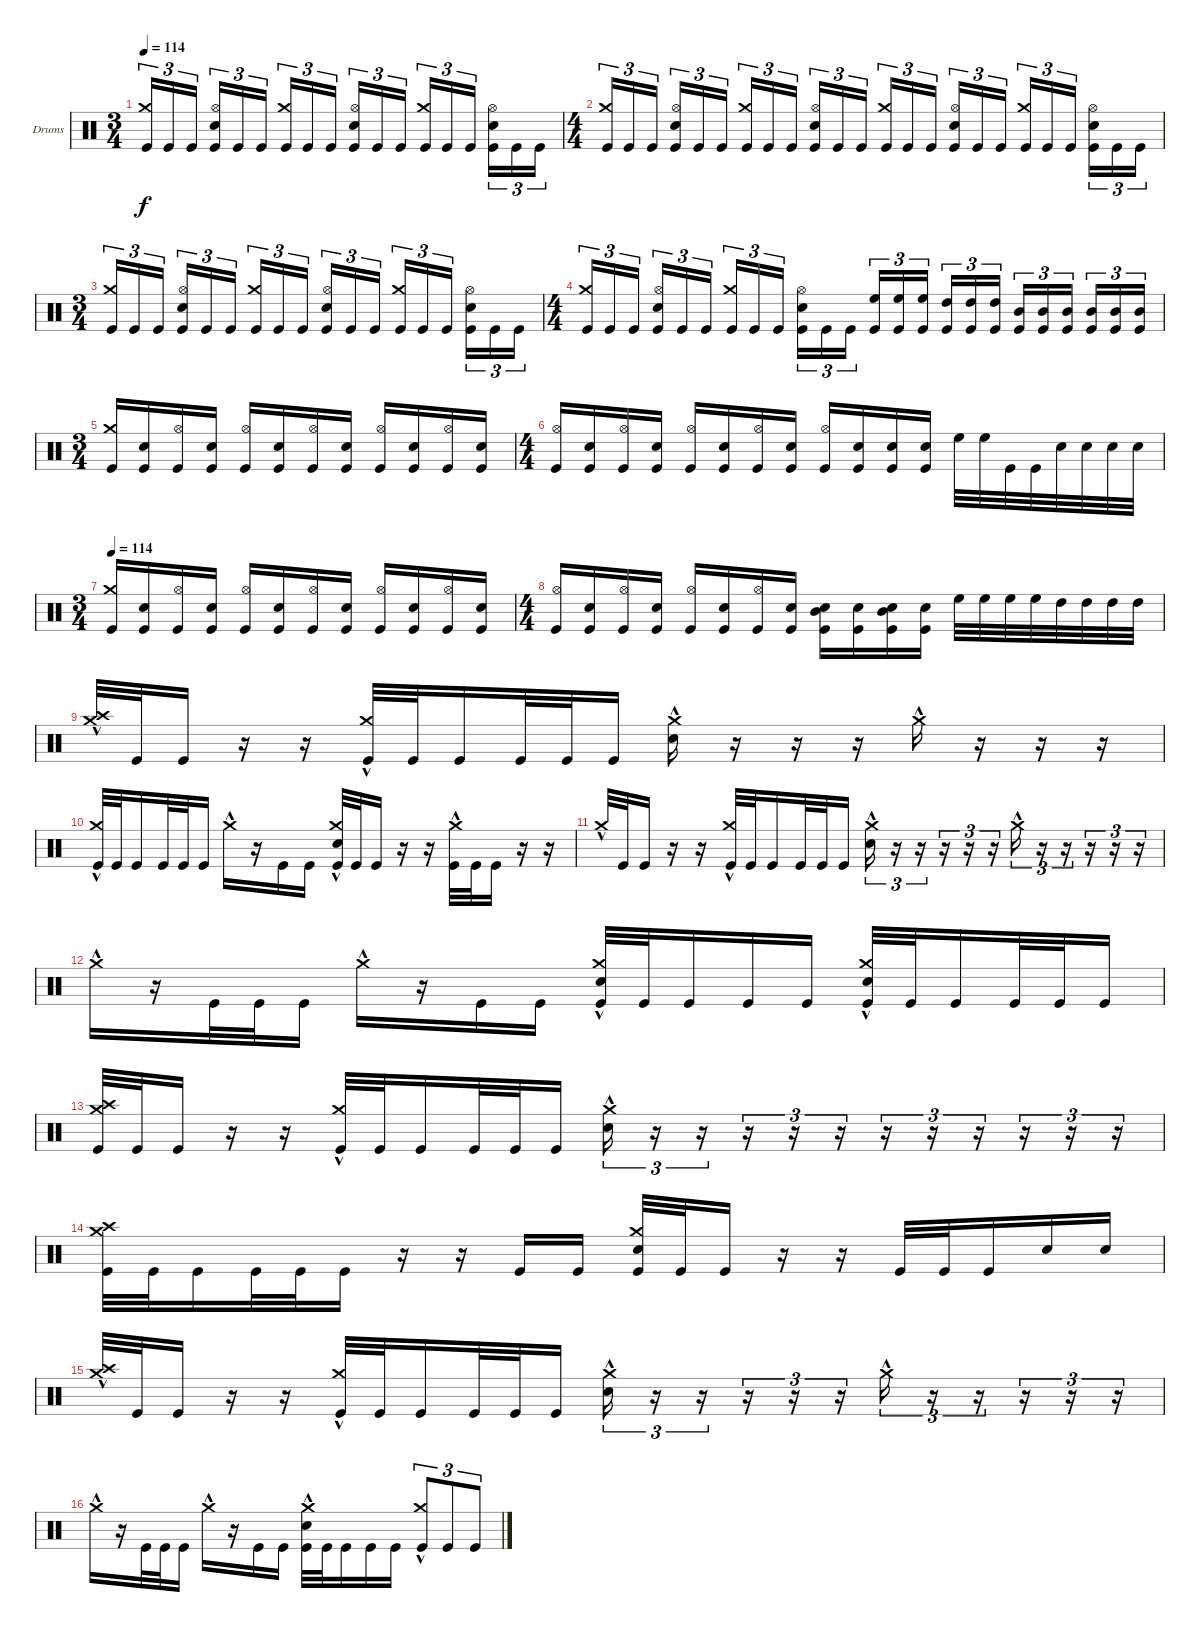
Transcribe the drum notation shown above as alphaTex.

\defaultSystemsLayout 4
\bracketExtendMode groupsimilarinstruments
\firstSystemTrackNameOrientation horizontal
\otherSystemsTrackNameOrientation horizontal
\track ("Drumkit" "Drums") {instrument percussion}
\staff {score}
\articulation defaults
\ts (3 4)
\tempo 114
\clef neutral
\ks c
("Kick (hit)" "Crash medium (hit)").16{tu (3 2) dy f beam invert} "Kick (hit)".16{tu (3 2)} "Kick (hit)".16{tu (3 2)} ("Kick (hit)" "Snare (hit) 2" "Hi-Hat (open)").16{tu (3 2)} "Kick (hit)".16{tu (3 2)} "Kick (hit)".16{tu (3 2)} ("Kick (hit)" "Crash medium (hit)").16{tu (3 2) beam invert} "Kick (hit)".16{tu (3 2)} "Kick (hit)".16{tu (3 2)} ("Kick (hit)" "Snare (hit) 2" "Hi-Hat (open)").16{tu (3 2)} "Kick (hit)".16{tu (3 2)} "Kick (hit)".16{tu (3 2)} ("Kick (hit)" "Crash medium (hit)").16{tu (3 2) beam invert} "Kick (hit)".16{tu (3 2)} "Kick (hit)".16{tu (3 2)} ("Kick (hit)" "Snare (hit) 2" "Hi-Hat (open)").16{tu (3 2)} "Kick (hit)".16{tu (3 2)} "Kick (hit)".16{tu (3 2)} |
\ts (4 4)
("Kick (hit)" "Crash medium (hit)").16{tu (3 2) beam invert} "Kick (hit)".16{tu (3 2)} "Kick (hit)".16{tu (3 2)} ("Kick (hit)" "Snare (hit) 2" "Hi-Hat (open)").16{tu (3 2)} "Kick (hit)".16{tu (3 2)} "Kick (hit)".16{tu (3 2)} ("Kick (hit)" "Crash medium (hit)").16{tu (3 2) beam invert} "Kick (hit)".16{tu (3 2)} "Kick (hit)".16{tu (3 2)} ("Kick (hit)" "Snare (hit) 2" "Hi-Hat (open)").16{tu (3 2)} "Kick (hit)".16{tu (3 2)} "Kick (hit)".16{tu (3 2)} ("Kick (hit)" "Crash medium (hit)").16{tu (3 2) beam invert} "Kick (hit)".16{tu (3 2)} "Kick (hit)".16{tu (3 2)} ("Kick (hit)" "Snare (hit) 2" "Hi-Hat (open)").16{tu (3 2)} "Kick (hit)".16{tu (3 2)} "Kick (hit)".16{tu (3 2)} ("Kick (hit)" "Crash medium (hit)").16{tu (3 2) beam invert} "Kick (hit)".16{tu (3 2)} "Kick (hit)".16{tu (3 2)} ("Kick (hit)" "Snare (hit) 2" "Hi-Hat (open)").16{tu (3 2)} "Kick (hit)".16{tu (3 2)} "Kick (hit)".16{tu (3 2)} |
\ts (3 4)
("Kick (hit)" "Crash medium (hit)").16{tu (3 2) beam invert} "Kick (hit)".16{tu (3 2)} "Kick (hit)".16{tu (3 2)} ("Kick (hit)" "Snare (hit) 2" "Hi-Hat (open)").16{tu (3 2)} "Kick (hit)".16{tu (3 2)} "Kick (hit)".16{tu (3 2)} ("Kick (hit)" "Crash medium (hit)").16{tu (3 2) beam invert} "Kick (hit)".16{tu (3 2)} "Kick (hit)".16{tu (3 2)} ("Kick (hit)" "Snare (hit) 2" "Hi-Hat (open)").16{tu (3 2)} "Kick (hit)".16{tu (3 2)} "Kick (hit)".16{tu (3 2)} ("Kick (hit)" "Crash medium (hit)").16{tu (3 2) beam invert} "Kick (hit)".16{tu (3 2)} "Kick (hit)".16{tu (3 2)} ("Kick (hit)" "Snare (hit) 2" "Hi-Hat (open)").16{tu (3 2)} "Kick (hit)".16{tu (3 2)} "Kick (hit)".16{tu (3 2)} |
\ts (4 4)
("Kick (hit)" "Crash medium (hit)").16{tu (3 2) beam invert} "Kick (hit)".16{tu (3 2)} "Kick (hit)".16{tu (3 2)} ("Kick (hit)" "Snare (hit) 2" "Hi-Hat (open)").16{tu (3 2)} "Kick (hit)".16{tu (3 2)} "Kick (hit)".16{tu (3 2)} ("Kick (hit)" "Crash medium (hit)").16{tu (3 2) beam invert} "Kick (hit)".16{tu (3 2)} "Kick (hit)".16{tu (3 2)} ("Kick (hit)" "Snare (hit) 2" "Hi-Hat (open)").16{tu (3 2)} "Kick (hit)".16{tu (3 2)} "Kick (hit)".16{tu (3 2)} ("Kick (hit)" "High Floor Tom (hit)").16{tu (3 2)} ("Kick (hit)" "High Floor Tom (hit)").16{tu (3 2)} ("Kick (hit)" "High Floor Tom (hit)").16{tu (3 2)} ("Kick (hit)" "High Tom (hit)").16{tu (3 2)} ("Kick (hit)" "High Tom (hit)").16{tu (3 2)} ("Kick (hit)" "High Tom (hit)").16{tu (3 2)} ("Kick (hit)" "Mid Tom (hit)").16{tu (3 2)} ("Kick (hit)" "Mid Tom (hit)").16{tu (3 2)} ("Kick (hit)" "Mid Tom (hit)").16{tu (3 2)} ("Kick (hit)" "Mid Tom (hit)").16{tu (3 2)} ("Kick (hit)" "Mid Tom (hit)").16{tu (3 2)} ("Kick (hit)" "Mid Tom (hit)").16{tu (3 2)} |
\ts (3 4)
("Kick (hit)" "Crash medium (hit)").16{beam invert} ("Snare (hit) 2" "Kick (hit)").16 ("Kick (hit)" "Hi-Hat (open)").16 ("Kick (hit)" "Snare (hit) 2").16 ("Hi-Hat (open)" "Kick (hit)").16{beam invert} ("Kick (hit)" "Snare (hit) 2").16 ("Kick (hit)" "Hi-Hat (open)").16 ("Kick (hit)" "Snare (hit) 2").16 ("Hi-Hat (open)" "Kick (hit)").16{beam invert} ("Kick (hit)" "Snare (hit) 2").16 ("Kick (hit)" "Hi-Hat (open)").16 ("Kick (hit)" "Snare (hit) 2").16 |
\ts (4 4)
("Hi-Hat (open)" "Kick (hit)").16{beam invert} ("Kick (hit)" "Snare (hit) 2").16 ("Kick (hit)" "Hi-Hat (open)").16 ("Kick (hit)" "Snare (hit) 2").16 ("Hi-Hat (open)" "Kick (hit)").16{beam invert} ("Kick (hit)" "Snare (hit) 2").16 ("Kick (hit)" "Hi-Hat (open)").16 ("Kick (hit)" "Snare (hit) 2").16 ("Kick (hit)" "Hi-Hat (open)").16{beam invert} ("Kick (hit)" "Snare (hit) 2").16 ("Kick (hit)" "Snare (hit) 2").16 ("Kick (hit)" "Snare (hit) 2").16 "High Floor Tom (hit)".32{beam invert} "High Floor Tom (hit)".32 "Kick (hit)".32 "Kick (hit)".32 "Snare (hit) 2".32 "Snare (hit) 2".32 "Snare (hit) 2".32 "Snare (hit) 2".32 |
\ts (3 4)
\tempo (114 0.00625)
("Kick (hit)" "Crash medium (hit)").16{beam invert} ("Snare (hit) 2" "Kick (hit)").16 ("Kick (hit)" "Hi-Hat (open)").16 ("Kick (hit)" "Snare (hit) 2").16 ("Hi-Hat (open)" "Kick (hit)").16{beam invert} ("Kick (hit)" "Snare (hit) 2").16 ("Kick (hit)" "Hi-Hat (open)").16 ("Kick (hit)" "Snare (hit) 2").16 ("Hi-Hat (open)" "Kick (hit)").16{beam invert} ("Kick (hit)" "Snare (hit) 2").16 ("Kick (hit)" "Hi-Hat (open)").16 ("Kick (hit)" "Snare (hit) 2").16 |
\ts (4 4)
("Kick (hit)" "Hi-Hat (open)").16{beam invert} ("Kick (hit)" "Snare (hit) 2").16 ("Kick (hit)" "Hi-Hat (open)").16 ("Kick (hit)" "Snare (hit) 2").16 ("Hi-Hat (open)" "Kick (hit)").16{beam invert} ("Kick (hit)" "Snare (hit) 2").16 ("Kick (hit)" "Hi-Hat (open)").16 ("Kick (hit)" "Snare (hit) 2").16 ("Snare (hit) 2" "Mid Tom (hit)" "Kick (hit)").16{beam invert} ("Snare (hit) 2" "Kick (hit)").16 ("Mid Tom (hit)" "Snare (hit) 2" "Kick (hit)").16 ("Snare (hit) 2" "Kick (hit)").16 "High Floor Tom (hit)".32 "High Floor Tom (hit)".32 "High Floor Tom (hit)".32 "High Floor Tom (hit)".32 "High Tom (hit)".32 "High Tom (hit)".32 "High Tom (hit)".32 "High Tom (hit)".32 |
("Crash medium (hit)"{hac} "Crash high (hit)").32 "Kick (hit)".32 "Kick (hit)".16 r.16 r.16 ("Crash medium (hit)"{hac} "Kick (hit)").32{beam invert} "Kick (hit)".32 "Kick (hit)".16 "Kick (hit)".32 "Kick (hit)".32 "Kick (hit)".16 ("Snare (hit) 2" "Crash medium (hit)"{hac}).16 r.16 r.16 r.16 "Crash medium (hit)"{hac}.16 r.16 r.16 r.16 |
("Crash medium (hit)"{hac} "Kick (hit)").32{beam invert} "Kick (hit)".32 "Kick (hit)".16 "Kick (hit)".32 "Kick (hit)".32 "Kick (hit)".16 "Crash medium (hit)"{hac}.16 r.16 "Kick (hit)".16 "Kick (hit)".16 ("Kick (hit)" "Snare (hit) 2" "Crash medium (hit)"{hac}).32 "Kick (hit)".32 "Kick (hit)".16 r.16 r.16 ("Kick (hit)" "Crash medium (hit)"{hac}).32 "Kick (hit)".32 "Kick (hit)".16 r.16 r.16 |
"Crash medium (hit)"{hac}.32 "Kick (hit)".32 "Kick (hit)".16 r.16 r.16 ("Crash medium (hit)"{hac} "Kick (hit)").32{beam invert} "Kick (hit)".32 "Kick (hit)".16 "Kick (hit)".32 "Kick (hit)".32 "Kick (hit)".16 ("Snare (hit) 2" "Crash medium (hit)"{hac}).16{tu (3 2)} r.16{tu (3 2)} r.16{tu (3 2)} r.16{tu (3 2)} r.16{tu (3 2)} r.16{tu (3 2)} "Crash medium (hit)"{hac}.16{tu (3 2)} r.16{tu (3 2)} r.16{tu (3 2)} r.16{tu (3 2)} r.16{tu (3 2)} r.16{tu (3 2)} |
"Crash medium (hit)"{hac}.16 r.16 "Kick (hit)".32 "Kick (hit)".32 "Kick (hit)".16 "Crash medium (hit)"{hac}.16 r.16 "Kick (hit)".16 "Kick (hit)".16 ("Kick (hit)" "Snare (hit) 2" "Crash medium (hit)"{hac}).32 "Kick (hit)".32 "Kick (hit)".16 "Kick (hit)".16 "Kick (hit)".16 ("Kick (hit)" "Snare (hit) 2" "Crash medium (hit)"{hac}).32 "Kick (hit)".32 "Kick (hit)".16 "Kick (hit)".32 "Kick (hit)".32 "Kick (hit)".16 |
("Crash medium (hit)" "Crash high (hit)" "Kick (hit)").32 "Kick (hit)".32 "Kick (hit)".16 r.16 r.16 ("Crash medium (hit)"{hac} "Kick (hit)").32{beam invert} "Kick (hit)".32 "Kick (hit)".16 "Kick (hit)".32 "Kick (hit)".32 "Kick (hit)".16 ("Snare (hit) 2" "Crash medium (hit)"{hac}).16{tu (3 2)} r.16{tu (3 2)} r.16{tu (3 2)} r.16{tu (3 2)} r.16{tu (3 2)} r.16{tu (3 2)} r.16{tu (3 2)} r.16{tu (3 2)} r.16{tu (3 2)} r.16{tu (3 2)} r.16{tu (3 2)} r.16{tu (3 2)} |
("Kick (hit)" "Crash medium (hit)" "Crash high (hit)").32 "Kick (hit)".32 "Kick (hit)".16 "Kick (hit)".32 "Kick (hit)".32 "Kick (hit)".16 r.16 r.16 "Kick (hit)".16 "Kick (hit)".16 ("Kick (hit)" "Snare (hit) 2" "Crash medium (hit)").32 "Kick (hit)".32 "Kick (hit)".16 r.16 r.16 "Kick (hit)".32 "Kick (hit)".32 "Kick (hit)".16 "Snare (hit) 2".16 "Snare (hit) 2".16 |
("Crash medium (hit)"{hac} "Crash high (hit)").32 "Kick (hit)".32 "Kick (hit)".16 r.16 r.16 ("Crash medium (hit)"{hac} "Kick (hit)").32{beam invert} "Kick (hit)".32 "Kick (hit)".16 "Kick (hit)".32 "Kick (hit)".32 "Kick (hit)".16 ("Snare (hit) 2" "Crash medium (hit)"{hac}).16{tu (3 2)} r.16{tu (3 2)} r.16{tu (3 2)} r.16{tu (3 2)} r.16{tu (3 2)} r.16{tu (3 2)} "Crash medium (hit)"{hac}.16{tu (3 2)} r.16{tu (3 2)} r.16{tu (3 2)} r.16{tu (3 2)} r.16{tu (3 2)} r.16{tu (3 2)} |
"Crash medium (hit)"{hac}.16 r.16 "Kick (hit)".32 "Kick (hit)".32 "Kick (hit)".16 "Crash medium (hit)"{hac}.16 r.16 "Kick (hit)".16 "Kick (hit)".16 ("Kick (hit)" "Snare (hit) 2" "Crash medium (hit)"{hac}).32 "Kick (hit)".32 "Kick (hit)".16 "Kick (hit)".16 "Kick (hit)".16 ("Kick (hit)" "Crash medium (hit)"{hac}).8{tu (3 2) beam invert} "Kick (hit)".8{tu (3 2)} "Kick (hit)".8{tu (3 2)}
